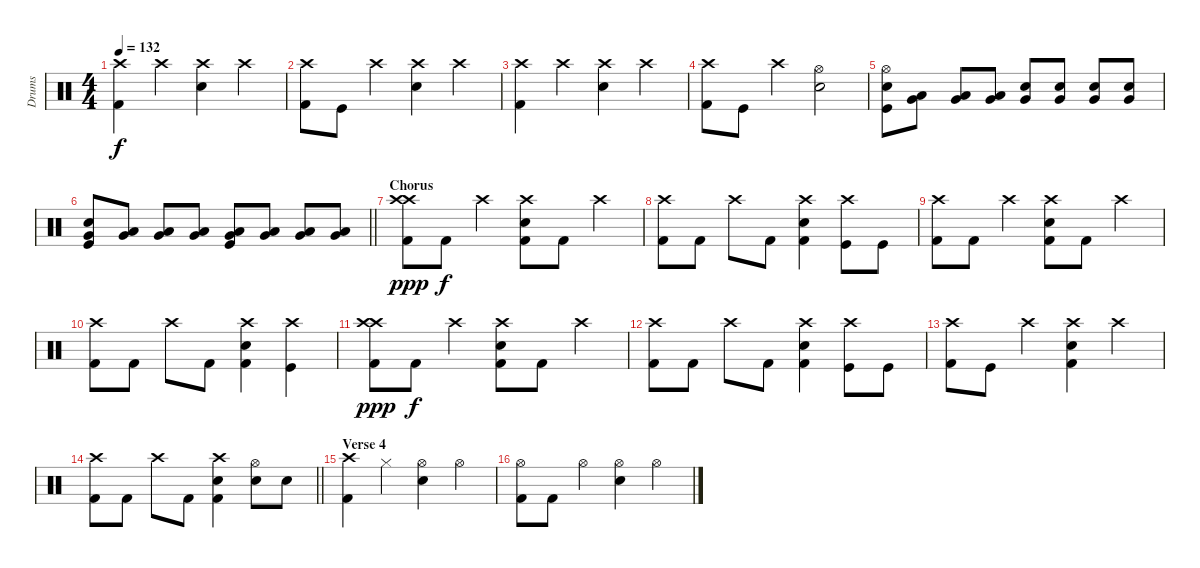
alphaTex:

\track ("Drums" "Drums") {instrument percussion}
\staff {score}
\articulation defaults
\ts (4 4)
\tempo 132
\clef neutral
\ks c
("Crash high (hit)" "Kick (hit) 2").4{dy f} "Crash high (hit)".4 ("Crash high (hit)" "Snare (hit) 2").4 "Crash high (hit)".4 |
("Crash high (hit)" "Kick (hit) 2").8 "Kick (hit)".8 "Crash high (hit)".4 ("Crash high (hit)" "Snare (hit) 2").4 "Crash high (hit)".4 |
("Crash high (hit)" "Kick (hit) 2").4 "Crash high (hit)".4 ("Crash high (hit)" "Snare (hit) 2").4 "Crash high (hit)".4 |
("Crash high (hit)" "Kick (hit) 2").8 "Kick (hit)".8 "Crash high (hit)".4 ("Snare (hit) 2" "Hi-Hat (open)").2 |
("Hi-Hat (open)" "Kick (hit)" "Snare (hit) 2").8 ("Very Low Tom (hit)" "Low Tom (hit)").8 ("Very Low Tom (hit)" "Low Tom (hit)").8 ("Very Low Tom (hit)" "Low Tom (hit)").8 ("Very Low Tom (hit)" "Snare (hit) 2").8 ("Very Low Tom (hit)" "Snare (hit) 2").8 ("Very Low Tom (hit)" "Snare (hit) 2").8 ("Very Low Tom (hit)" "Snare (hit) 2").8 |
\barLineRight lightlight
("Very Low Tom (hit)" "Kick (hit)" "Snare (hit) 2").8 ("Very Low Tom (hit)" "Low Tom (hit)").8 ("Very Low Tom (hit)" "Low Tom (hit)").8 ("Very Low Tom (hit)" "Low Tom (hit)").8 ("Very Low Tom (hit)" "Low Tom (hit)" "Kick (hit)").8 ("Very Low Tom (hit)" "Low Tom (hit)").8 ("Very Low Tom (hit)" "Low Tom (hit)").8 ("Very Low Tom (hit)" "Low Tom (hit)").8 |
\section ("" "Chorus")
("Crash high (hit)" "Crash high (hit)" "Kick (hit) 2").8{dy ppp} "Kick (hit) 2".8{dy f} "Crash high (hit)".4 ("Crash high (hit)" "Electric Snare (hit)" "Kick (hit) 2").8 "Kick (hit) 2".8 "Crash high (hit)".4 |
("Crash high (hit)" "Kick (hit) 2").8 "Kick (hit) 2".8 "Crash high (hit)".8 "Kick (hit) 2".8 ("Crash high (hit)" "Electric Snare (hit)" "Kick (hit) 2").4 ("Crash high (hit)" "Kick (hit)").8 "Kick (hit)".8 |
("Crash high (hit)" "Kick (hit) 2").8 "Kick (hit) 2".8 "Crash high (hit)".4 ("Crash high (hit)" "Electric Snare (hit)" "Kick (hit) 2").8 "Kick (hit) 2".8 "Crash high (hit)".4 |
("Crash high (hit)" "Kick (hit) 2").8 "Kick (hit) 2".8 "Crash high (hit)".8 "Kick (hit) 2".8 ("Crash high (hit)" "Electric Snare (hit)" "Kick (hit) 2").4 ("Crash high (hit)" "Kick (hit)").4 |
("Crash high (hit)" "Crash high (hit)" "Kick (hit) 2").8{dy ppp} "Kick (hit) 2".8{dy f} "Crash high (hit)".4 ("Crash high (hit)" "Electric Snare (hit)" "Kick (hit) 2").8 "Kick (hit) 2".8 "Crash high (hit)".4 |
("Crash high (hit)" "Kick (hit) 2").8 "Kick (hit) 2".8 "Crash high (hit)".8 "Kick (hit) 2".8 ("Crash high (hit)" "Electric Snare (hit)" "Kick (hit) 2").4 ("Crash high (hit)" "Kick (hit)").8 "Kick (hit)".8 |
("Crash high (hit)" "Kick (hit) 2").8 "Kick (hit)".8 "Crash high (hit)".4 ("Crash high (hit)" "Electric Snare (hit)" "Kick (hit) 2").4 "Crash high (hit)".4 |
\barLineRight lightlight
("Crash high (hit)" "Kick (hit) 2").8 "Kick (hit) 2".8 "Crash high (hit)".8 "Kick (hit) 2".8 ("Crash high (hit)" "Electric Snare (hit)" "Kick (hit) 2").4 ("Snare (hit) 2" "Hi-Hat (open)").8 "Snare (hit) 2".8 |
\section ("" "Verse 4")
("Crash high (hit)" "Kick (hit) 2").4 "Hi-Hat (closed)".4 ("Snare (hit) 2" "Hi-Hat (open)").4 "Hi-Hat (open)".4 |
("Hi-Hat (open)" "Kick (hit) 2").8 "Kick (hit) 2".8 "Hi-Hat (open)".4 ("Hi-Hat (open)" "Snare (hit) 2").4 "Hi-Hat (open)".4
